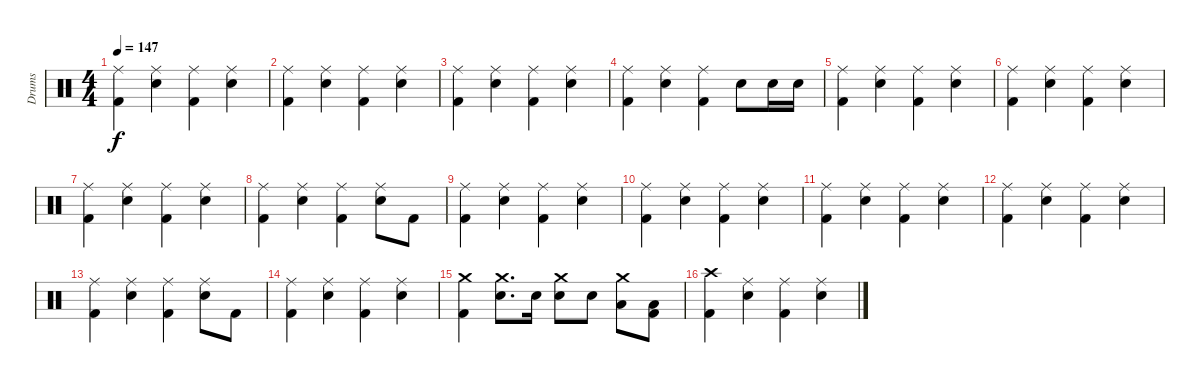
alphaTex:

\track ("Drums" "Drums") {instrument percussion}
\staff {score}
\articulation defaults
\ts (4 4)
\tempo 147
\clef neutral
\ks c
("Ride (middle)" "Kick (hit) 2").4{dy f} ("Ride (middle)" "Snare (hit) 2").4 ("Ride (middle)" "Kick (hit) 2").4 ("Ride (middle)" "Snare (hit) 2").4 |
("Ride (middle)" "Kick (hit) 2").4 ("Ride (middle)" "Snare (hit) 2").4 ("Ride (middle)" "Kick (hit) 2").4 ("Ride (middle)" "Snare (hit) 2").4 |
("Ride (middle)" "Kick (hit) 2").4 ("Ride (middle)" "Snare (hit) 2").4 ("Ride (middle)" "Kick (hit) 2").4 ("Ride (middle)" "Snare (hit) 2").4 |
("Ride (middle)" "Kick (hit) 2").4 ("Ride (middle)" "Snare (hit) 2").4 ("Ride (middle)" "Kick (hit) 2").4 "Snare (hit) 2".8 "Snare (hit) 2".16 "Snare (hit) 2".16 |
("Ride (middle)" "Kick (hit) 2").4 ("Ride (middle)" "Snare (hit) 2").4 ("Ride (middle)" "Kick (hit) 2").4 ("Ride (middle)" "Snare (hit) 2").4 |
("Ride (middle)" "Kick (hit) 2").4 ("Ride (middle)" "Snare (hit) 2").4 ("Ride (middle)" "Kick (hit) 2").4 ("Ride (middle)" "Snare (hit) 2").4 |
("Ride (middle)" "Kick (hit) 2").4 ("Ride (middle)" "Snare (hit) 2").4 ("Ride (middle)" "Kick (hit) 2").4 ("Ride (middle)" "Snare (hit) 2").4 |
("Ride (middle)" "Kick (hit) 2").4 ("Ride (middle)" "Snare (hit) 2").4 ("Ride (middle)" "Kick (hit) 2").4 ("Ride (middle)" "Snare (hit) 2").8 "Kick (hit) 2".8 |
("Ride (middle)" "Kick (hit) 2").4 ("Ride (middle)" "Snare (hit) 2").4 ("Ride (middle)" "Kick (hit) 2").4 ("Ride (middle)" "Snare (hit) 2").4 |
("Ride (middle)" "Kick (hit) 2").4 ("Ride (middle)" "Snare (hit) 2").4 ("Ride (middle)" "Kick (hit) 2").4 ("Ride (middle)" "Snare (hit) 2").4 |
("Ride (middle)" "Kick (hit) 2").4 ("Ride (middle)" "Snare (hit) 2").4 ("Ride (middle)" "Kick (hit) 2").4 ("Ride (middle)" "Snare (hit) 2").4 |
("Ride (middle)" "Kick (hit) 2").4 ("Ride (middle)" "Snare (hit) 2").4 ("Ride (middle)" "Kick (hit) 2").4 ("Ride (middle)" "Snare (hit) 2").4 |
("Ride (middle)" "Kick (hit) 2").4 ("Ride (middle)" "Snare (hit) 2").4 ("Ride (middle)" "Kick (hit) 2").4 ("Ride (middle)" "Snare (hit) 2").8 "Kick (hit) 2".8 |
("Ride (middle)" "Kick (hit) 2").4 ("Ride (middle)" "Snare (hit) 2").4 ("Ride (middle)" "Kick (hit) 2").4 ("Ride (middle)" "Snare (hit) 2").4 |
("Crash medium (hit)" "Kick (hit) 2").4 ("Crash medium (hit)" "Snare (hit) 2").8{d} "Snare (hit) 2".16 ("Crash medium (hit)" "Snare (hit) 2").8 "Snare (hit) 2".8 ("Crash medium (hit)" "Low Floor Tom (hit)").8 ("Low Floor Tom (hit)" "Kick (hit) 2").8 |
("Crash high (hit)" "Kick (hit) 2").4 ("Ride (middle)" "Snare (hit) 2").4 ("Ride (middle)" "Kick (hit) 2").4 ("Ride (middle)" "Snare (hit) 2").4
